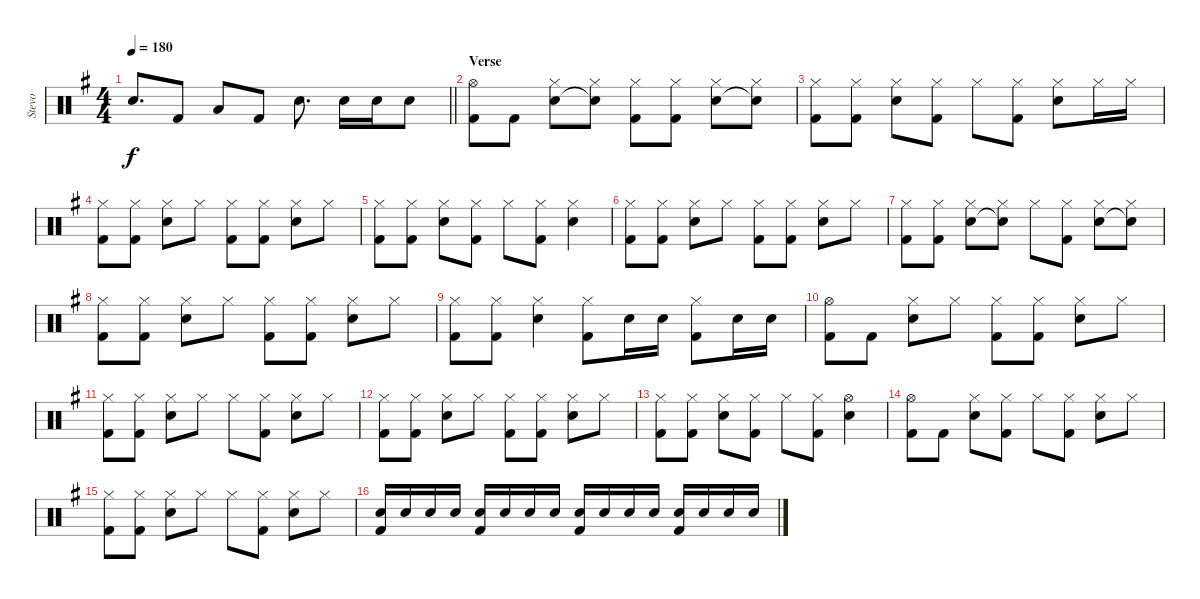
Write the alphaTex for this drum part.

\track ("Stevo" "Stevo") {instrument percussion}
\staff {score}
\articulation defaults
\ts (4 4)
\tempo 180
\clef neutral
\barLineRight lightlight
\ks g "Electric Snare (hit)".8{d dy f} "Kick (hit) 2".8 "Low Tom (hit)".8 "Kick (hit) 2".8 "Electric Snare (hit)".8{d} "Electric Snare (hit)".16 "Electric Snare (hit)".16 "Electric Snare (hit)".8
|
\section ("" "Verse")
("Hi-Hat (open)" "Kick (hit) 2").8 "Kick (hit) 2".8 ("Hi-Hat (closed)" "Snare (hit) 2").8 ("Hi-Hat (closed)" "Snare (hit) 2"{t}).8 ("Hi-Hat (closed)" "Kick (hit) 2").8 ("Hi-Hat (closed)" "Kick (hit) 2").8 ("Hi-Hat (closed)" "Snare (hit) 2").8 ("Hi-Hat (closed)" "Snare (hit) 2"{t}).8 |
("Hi-Hat (closed)" "Kick (hit) 2").8 ("Hi-Hat (closed)" "Kick (hit) 2").8 ("Hi-Hat (closed)" "Snare (hit) 2").8 ("Hi-Hat (closed)" "Kick (hit) 2").8 "Hi-Hat (closed)".8 ("Hi-Hat (closed)" "Kick (hit) 2").8 ("Hi-Hat (closed)" "Snare (hit) 2").8 "Hi-Hat (closed)".16 "Hi-Hat (closed)".16 |
("Hi-Hat (closed)" "Kick (hit) 2").8 ("Hi-Hat (closed)" "Kick (hit) 2").8 ("Hi-Hat (closed)" "Snare (hit) 2").8 "Hi-Hat (closed)".8 ("Hi-Hat (closed)" "Kick (hit) 2").8 ("Hi-Hat (closed)" "Kick (hit) 2").8 ("Hi-Hat (closed)" "Snare (hit) 2").8 "Hi-Hat (closed)".8 |
("Hi-Hat (closed)" "Kick (hit) 2").8 ("Hi-Hat (closed)" "Kick (hit) 2").8 ("Hi-Hat (closed)" "Snare (hit) 2").8 ("Hi-Hat (closed)" "Kick (hit) 2").8 "Hi-Hat (closed)".8 ("Hi-Hat (closed)" "Kick (hit) 2").8 ("Hi-Hat (closed)" "Snare (hit) 2").4 |
("Hi-Hat (closed)" "Kick (hit) 2").8 ("Hi-Hat (closed)" "Kick (hit) 2").8 ("Hi-Hat (closed)" "Snare (hit) 2").8 "Hi-Hat (closed)".8 ("Hi-Hat (closed)" "Kick (hit) 2").8 ("Hi-Hat (closed)" "Kick (hit) 2").8 ("Hi-Hat (closed)" "Snare (hit) 2").8 "Hi-Hat (closed)".8 |
("Hi-Hat (closed)" "Kick (hit) 2").8 ("Hi-Hat (closed)" "Kick (hit) 2").8 ("Hi-Hat (closed)" "Snare (hit) 2").8 ("Hi-Hat (closed)" "Snare (hit) 2"{t}).8 "Hi-Hat (closed)".8 ("Hi-Hat (closed)" "Kick (hit) 2").8 ("Hi-Hat (closed)" "Snare (hit) 2").8 ("Hi-Hat (closed)" "Snare (hit) 2"{t}).8 |
("Hi-Hat (closed)" "Kick (hit) 2").8 ("Hi-Hat (closed)" "Kick (hit) 2").8 ("Hi-Hat (closed)" "Snare (hit) 2").8 "Hi-Hat (closed)".8 ("Hi-Hat (closed)" "Kick (hit) 2").8 ("Hi-Hat (closed)" "Kick (hit) 2").8 ("Hi-Hat (closed)" "Snare (hit) 2").8 "Hi-Hat (closed)".8 |
("Hi-Hat (closed)" "Kick (hit) 2").8 ("Hi-Hat (closed)" "Kick (hit) 2").8 ("Hi-Hat (closed)" "Snare (hit) 2").4 ("Hi-Hat (closed)" "Kick (hit) 2").8 "Snare (hit) 2".16 "Snare (hit) 2".16 ("Hi-Hat (closed)" "Kick (hit) 2").8 "Snare (hit) 2".16 "Snare (hit) 2".16 |
("Hi-Hat (open)" "Kick (hit) 2").8 "Kick (hit) 2".8 ("Hi-Hat (closed)" "Snare (hit) 2").8 "Hi-Hat (closed)".8 ("Hi-Hat (closed)" "Kick (hit) 2").8 ("Hi-Hat (closed)" "Kick (hit) 2").8 ("Hi-Hat (closed)" "Snare (hit) 2").8 "Hi-Hat (closed)".8 |
("Hi-Hat (closed)" "Kick (hit) 2").8 ("Hi-Hat (closed)" "Kick (hit) 2").8 ("Hi-Hat (closed)" "Snare (hit) 2").8 "Hi-Hat (closed)".8 "Hi-Hat (closed)".8 ("Hi-Hat (closed)" "Kick (hit) 2").8 ("Hi-Hat (closed)" "Snare (hit) 2").8 "Hi-Hat (closed)".8 |
("Hi-Hat (closed)" "Kick (hit) 2").8 ("Hi-Hat (closed)" "Kick (hit) 2").8 ("Hi-Hat (closed)" "Snare (hit) 2").8 "Hi-Hat (closed)".8 ("Hi-Hat (closed)" "Kick (hit) 2").8 ("Hi-Hat (closed)" "Kick (hit) 2").8 ("Hi-Hat (closed)" "Snare (hit) 2").8 "Hi-Hat (closed)".8 |
("Hi-Hat (closed)" "Kick (hit) 2").8 ("Hi-Hat (closed)" "Kick (hit) 2").8 ("Hi-Hat (closed)" "Snare (hit) 2").8 ("Hi-Hat (closed)" "Kick (hit) 2").8 "Hi-Hat (closed)".8 ("Hi-Hat (closed)" "Kick (hit) 2").8 ("Hi-Hat (open)" "Snare (hit) 2").4 |
("Hi-Hat (open)" "Kick (hit) 2").8 "Kick (hit) 2".8 ("Hi-Hat (closed)" "Snare (hit) 2").8 ("Hi-Hat (closed)" "Kick (hit) 2").8 "Hi-Hat (closed)".8 ("Hi-Hat (closed)" "Kick (hit) 2").8 ("Hi-Hat (closed)" "Snare (hit) 2").8 "Hi-Hat (closed)".8 |
("Hi-Hat (closed)" "Kick (hit) 2").8 ("Hi-Hat (closed)" "Kick (hit) 2").8 ("Hi-Hat (closed)" "Snare (hit) 2").8 "Hi-Hat (closed)".8 "Hi-Hat (closed)".8 ("Hi-Hat (closed)" "Kick (hit) 2").8 ("Hi-Hat (closed)" "Snare (hit) 2").8 "Hi-Hat (closed)".8 |
("Snare (hit) 2" "Kick (hit) 2").16 "Snare (hit) 2".16 "Snare (hit) 2".16 "Snare (hit) 2".16 ("Snare (hit) 2" "Kick (hit) 2").16 "Snare (hit) 2".16 "Snare (hit) 2".16 "Snare (hit) 2".16 ("Snare (hit) 2" "Kick (hit) 2").16 "Snare (hit) 2".16 "Snare (hit) 2".16 "Snare (hit) 2".16 ("Snare (hit) 2" "Kick (hit) 2").16 "Snare (hit) 2".16 "Snare (hit) 2".16 "Snare (hit) 2".16
